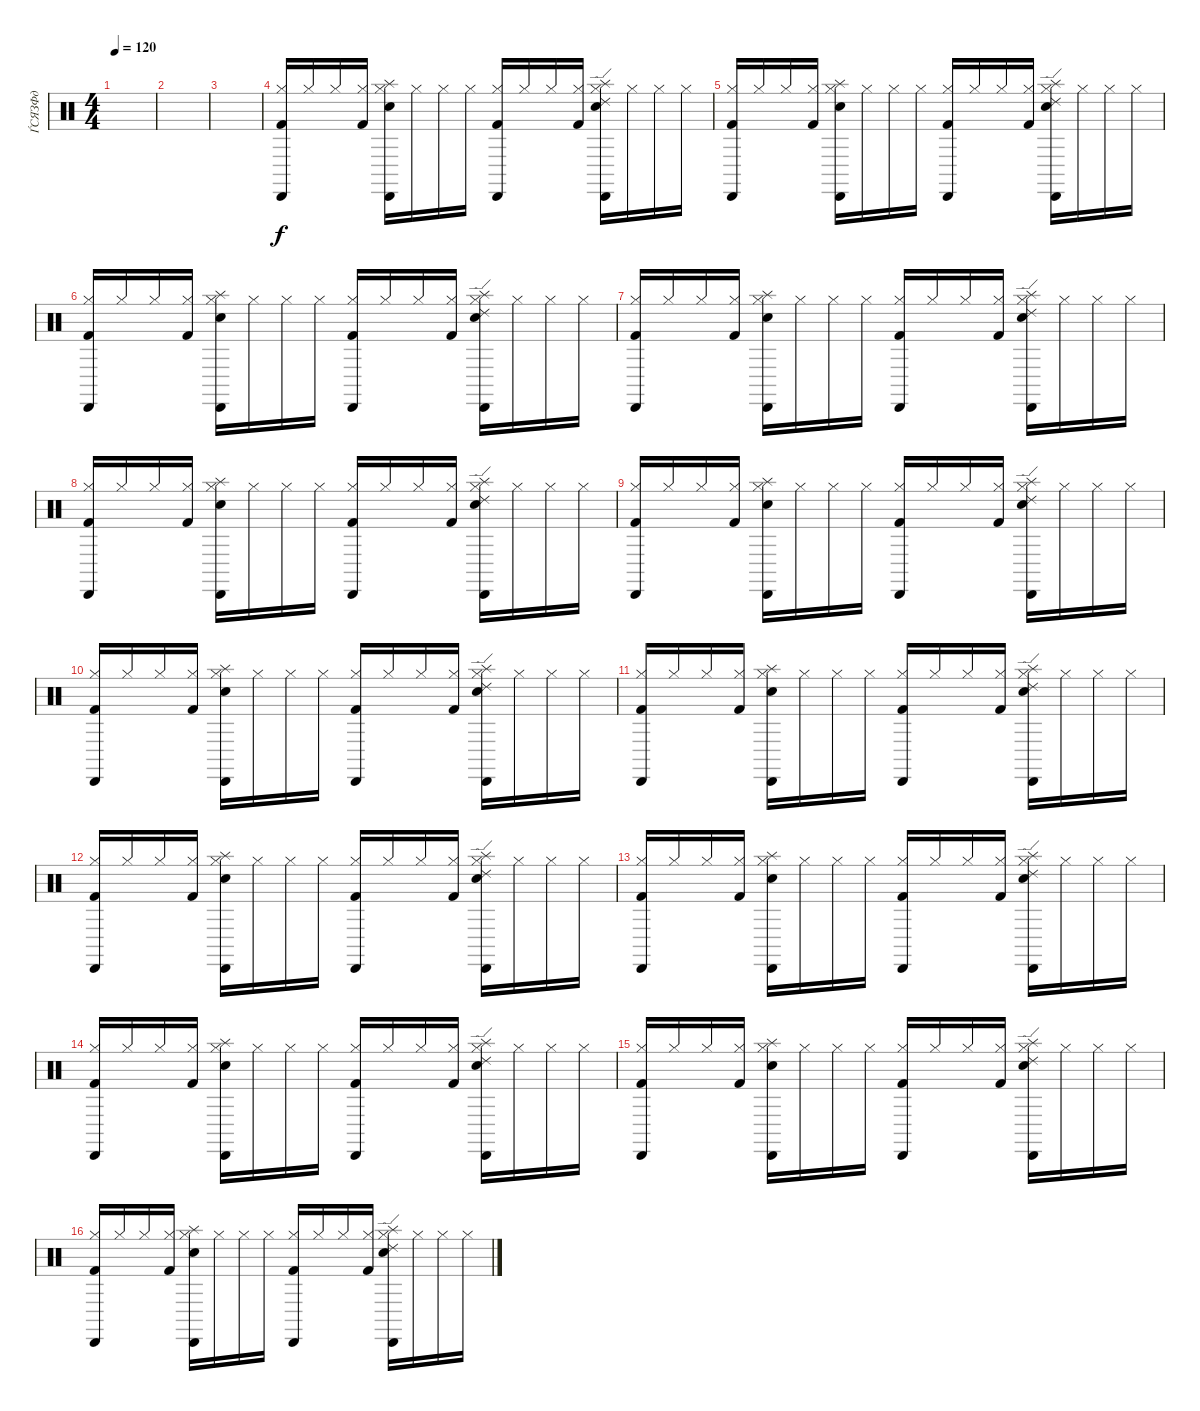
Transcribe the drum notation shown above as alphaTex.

\track ("ЃСЯЗФд" "ЃСЯЗФд") {instrument percussion}
\staff {score}
\articulation defaults
\ts (4 4)
\tempo 120
\clef neutral
\ks aminor
|
|
|
("Hi-Hat (closed)" "Kick (hit) 2" "Cabasa (hit)").16{volume 12} "Hi-Hat (closed)".16 "Hi-Hat (closed)".16 ("Hi-Hat (closed)" "Kick (hit) 2").16 ("Hi-Hat (closed)" "Snare (hit) 2" "Cabasa (hit)" "Splash (hit)").16 "Hi-Hat (closed)".16 "Hi-Hat (closed)".16 "Hi-Hat (closed)".16 ("Hi-Hat (closed)" "Kick (hit) 2" "Cabasa (hit)").16 "Hi-Hat (closed)".16 "Hi-Hat (closed)".16 ("Hi-Hat (closed)" "Kick (hit) 2").16 ("Hi-Hat (closed)" "Snare (hit) 2" "Cabasa (hit)" "Ride (edge) 2" "Splash (hit)").16 "Hi-Hat (closed)".16 "Hi-Hat (closed)".16 "Hi-Hat (closed)".16 |
("Hi-Hat (closed)" "Kick (hit) 2" "Cabasa (hit)").16{volume 12} "Hi-Hat (closed)".16 "Hi-Hat (closed)".16 ("Hi-Hat (closed)" "Kick (hit) 2").16 ("Hi-Hat (closed)" "Snare (hit) 2" "Cabasa (hit)" "Splash (hit)").16 "Hi-Hat (closed)".16 "Hi-Hat (closed)".16 "Hi-Hat (closed)".16 ("Hi-Hat (closed)" "Kick (hit) 2" "Cabasa (hit)").16 "Hi-Hat (closed)".16 "Hi-Hat (closed)".16 ("Hi-Hat (closed)" "Kick (hit) 2").16 ("Hi-Hat (closed)" "Snare (hit) 2" "Cabasa (hit)" "Ride (edge) 2" "Splash (hit)").16 "Hi-Hat (closed)".16 "Hi-Hat (closed)".16 "Hi-Hat (closed)".16 |
("Hi-Hat (closed)" "Kick (hit) 2" "Cabasa (hit)").16{volume 12} "Hi-Hat (closed)".16 "Hi-Hat (closed)".16 ("Hi-Hat (closed)" "Kick (hit) 2").16 ("Hi-Hat (closed)" "Snare (hit) 2" "Cabasa (hit)" "Splash (hit)").16 "Hi-Hat (closed)".16 "Hi-Hat (closed)".16 "Hi-Hat (closed)".16 ("Hi-Hat (closed)" "Kick (hit) 2" "Cabasa (hit)").16 "Hi-Hat (closed)".16 "Hi-Hat (closed)".16 ("Hi-Hat (closed)" "Kick (hit) 2").16 ("Hi-Hat (closed)" "Snare (hit) 2" "Cabasa (hit)" "Ride (edge) 2" "Splash (hit)").16 "Hi-Hat (closed)".16 "Hi-Hat (closed)".16 "Hi-Hat (closed)".16 |
("Hi-Hat (closed)" "Kick (hit) 2" "Cabasa (hit)").16{volume 12} "Hi-Hat (closed)".16 "Hi-Hat (closed)".16 ("Hi-Hat (closed)" "Kick (hit) 2").16 ("Hi-Hat (closed)" "Snare (hit) 2" "Cabasa (hit)" "Splash (hit)").16 "Hi-Hat (closed)".16 "Hi-Hat (closed)".16 "Hi-Hat (closed)".16 ("Hi-Hat (closed)" "Kick (hit) 2" "Cabasa (hit)").16 "Hi-Hat (closed)".16 "Hi-Hat (closed)".16 ("Hi-Hat (closed)" "Kick (hit) 2").16 ("Hi-Hat (closed)" "Snare (hit) 2" "Cabasa (hit)" "Ride (edge) 2" "Splash (hit)").16 "Hi-Hat (closed)".16 "Hi-Hat (closed)".16 "Hi-Hat (closed)".16 |
("Hi-Hat (closed)" "Kick (hit) 2" "Cabasa (hit)").16{volume 12} "Hi-Hat (closed)".16 "Hi-Hat (closed)".16 ("Hi-Hat (closed)" "Kick (hit) 2").16 ("Hi-Hat (closed)" "Snare (hit) 2" "Cabasa (hit)" "Splash (hit)").16 "Hi-Hat (closed)".16 "Hi-Hat (closed)".16 "Hi-Hat (closed)".16 ("Hi-Hat (closed)" "Kick (hit) 2" "Cabasa (hit)").16 "Hi-Hat (closed)".16 "Hi-Hat (closed)".16 ("Hi-Hat (closed)" "Kick (hit) 2").16 ("Hi-Hat (closed)" "Snare (hit) 2" "Cabasa (hit)" "Ride (edge) 2" "Splash (hit)").16 "Hi-Hat (closed)".16 "Hi-Hat (closed)".16 "Hi-Hat (closed)".16 |
("Hi-Hat (closed)" "Kick (hit) 2" "Cabasa (hit)").16{volume 12} "Hi-Hat (closed)".16 "Hi-Hat (closed)".16 ("Hi-Hat (closed)" "Kick (hit) 2").16 ("Hi-Hat (closed)" "Snare (hit) 2" "Cabasa (hit)" "Splash (hit)").16 "Hi-Hat (closed)".16 "Hi-Hat (closed)".16 "Hi-Hat (closed)".16 ("Hi-Hat (closed)" "Kick (hit) 2" "Cabasa (hit)").16 "Hi-Hat (closed)".16 "Hi-Hat (closed)".16 ("Hi-Hat (closed)" "Kick (hit) 2").16 ("Hi-Hat (closed)" "Snare (hit) 2" "Cabasa (hit)" "Ride (edge) 2" "Splash (hit)").16 "Hi-Hat (closed)".16 "Hi-Hat (closed)".16 "Hi-Hat (closed)".16 |
("Hi-Hat (closed)" "Kick (hit) 2" "Cabasa (hit)").16{volume 12} "Hi-Hat (closed)".16 "Hi-Hat (closed)".16 ("Hi-Hat (closed)" "Kick (hit) 2").16 ("Hi-Hat (closed)" "Snare (hit) 2" "Cabasa (hit)" "Splash (hit)").16 "Hi-Hat (closed)".16 "Hi-Hat (closed)".16 "Hi-Hat (closed)".16 ("Hi-Hat (closed)" "Kick (hit) 2" "Cabasa (hit)").16 "Hi-Hat (closed)".16 "Hi-Hat (closed)".16 ("Hi-Hat (closed)" "Kick (hit) 2").16 ("Hi-Hat (closed)" "Snare (hit) 2" "Cabasa (hit)" "Ride (edge) 2" "Splash (hit)").16 "Hi-Hat (closed)".16 "Hi-Hat (closed)".16 "Hi-Hat (closed)".16 |
("Hi-Hat (closed)" "Kick (hit) 2" "Cabasa (hit)").16{volume 12} "Hi-Hat (closed)".16 "Hi-Hat (closed)".16 ("Hi-Hat (closed)" "Kick (hit) 2").16 ("Hi-Hat (closed)" "Snare (hit) 2" "Cabasa (hit)" "Splash (hit)").16 "Hi-Hat (closed)".16 "Hi-Hat (closed)".16 "Hi-Hat (closed)".16 ("Hi-Hat (closed)" "Kick (hit) 2" "Cabasa (hit)").16 "Hi-Hat (closed)".16 "Hi-Hat (closed)".16 ("Hi-Hat (closed)" "Kick (hit) 2").16 ("Hi-Hat (closed)" "Snare (hit) 2" "Cabasa (hit)" "Ride (edge) 2" "Splash (hit)").16 "Hi-Hat (closed)".16 "Hi-Hat (closed)".16 "Hi-Hat (closed)".16 |
("Hi-Hat (closed)" "Kick (hit) 2" "Cabasa (hit)").16{volume 12} "Hi-Hat (closed)".16 "Hi-Hat (closed)".16 ("Hi-Hat (closed)" "Kick (hit) 2").16 ("Hi-Hat (closed)" "Snare (hit) 2" "Cabasa (hit)" "Splash (hit)").16 "Hi-Hat (closed)".16 "Hi-Hat (closed)".16 "Hi-Hat (closed)".16 ("Hi-Hat (closed)" "Kick (hit) 2" "Cabasa (hit)").16 "Hi-Hat (closed)".16 "Hi-Hat (closed)".16 ("Hi-Hat (closed)" "Kick (hit) 2").16 ("Hi-Hat (closed)" "Snare (hit) 2" "Cabasa (hit)" "Ride (edge) 2" "Splash (hit)").16 "Hi-Hat (closed)".16 "Hi-Hat (closed)".16 "Hi-Hat (closed)".16 |
("Hi-Hat (closed)" "Kick (hit) 2" "Cabasa (hit)").16{volume 12} "Hi-Hat (closed)".16 "Hi-Hat (closed)".16 ("Hi-Hat (closed)" "Kick (hit) 2").16 ("Hi-Hat (closed)" "Snare (hit) 2" "Cabasa (hit)" "Splash (hit)").16 "Hi-Hat (closed)".16 "Hi-Hat (closed)".16 "Hi-Hat (closed)".16 ("Hi-Hat (closed)" "Kick (hit) 2" "Cabasa (hit)").16 "Hi-Hat (closed)".16 "Hi-Hat (closed)".16 ("Hi-Hat (closed)" "Kick (hit) 2").16 ("Hi-Hat (closed)" "Snare (hit) 2" "Cabasa (hit)" "Ride (edge) 2" "Splash (hit)").16 "Hi-Hat (closed)".16 "Hi-Hat (closed)".16 "Hi-Hat (closed)".16 |
("Hi-Hat (closed)" "Kick (hit) 2" "Cabasa (hit)").16{volume 12} "Hi-Hat (closed)".16 "Hi-Hat (closed)".16 ("Hi-Hat (closed)" "Kick (hit) 2").16 ("Hi-Hat (closed)" "Snare (hit) 2" "Cabasa (hit)" "Splash (hit)").16 "Hi-Hat (closed)".16 "Hi-Hat (closed)".16 "Hi-Hat (closed)".16 ("Hi-Hat (closed)" "Kick (hit) 2" "Cabasa (hit)").16 "Hi-Hat (closed)".16 "Hi-Hat (closed)".16 ("Hi-Hat (closed)" "Kick (hit) 2").16 ("Hi-Hat (closed)" "Snare (hit) 2" "Cabasa (hit)" "Ride (edge) 2" "Splash (hit)").16 "Hi-Hat (closed)".16 "Hi-Hat (closed)".16 "Hi-Hat (closed)".16 |
("Hi-Hat (closed)" "Kick (hit) 2" "Cabasa (hit)").16{volume 12} "Hi-Hat (closed)".16 "Hi-Hat (closed)".16 ("Hi-Hat (closed)" "Kick (hit) 2").16 ("Hi-Hat (closed)" "Snare (hit) 2" "Cabasa (hit)" "Splash (hit)").16 "Hi-Hat (closed)".16 "Hi-Hat (closed)".16 "Hi-Hat (closed)".16 ("Hi-Hat (closed)" "Kick (hit) 2" "Cabasa (hit)").16 "Hi-Hat (closed)".16 "Hi-Hat (closed)".16 ("Hi-Hat (closed)" "Kick (hit) 2").16 ("Hi-Hat (closed)" "Snare (hit) 2" "Cabasa (hit)" "Ride (edge) 2" "Splash (hit)").16 "Hi-Hat (closed)".16 "Hi-Hat (closed)".16 "Hi-Hat (closed)".16 |
("Hi-Hat (closed)" "Kick (hit) 2" "Cabasa (hit)").16{volume 12} "Hi-Hat (closed)".16 "Hi-Hat (closed)".16 ("Hi-Hat (closed)" "Kick (hit) 2").16 ("Hi-Hat (closed)" "Snare (hit) 2" "Cabasa (hit)" "Splash (hit)").16 "Hi-Hat (closed)".16 "Hi-Hat (closed)".16 "Hi-Hat (closed)".16 ("Hi-Hat (closed)" "Kick (hit) 2" "Cabasa (hit)").16 "Hi-Hat (closed)".16 "Hi-Hat (closed)".16 ("Hi-Hat (closed)" "Kick (hit) 2").16 ("Hi-Hat (closed)" "Snare (hit) 2" "Cabasa (hit)" "Ride (edge) 2" "Splash (hit)").16 "Hi-Hat (closed)".16 "Hi-Hat (closed)".16 "Hi-Hat (closed)".16
